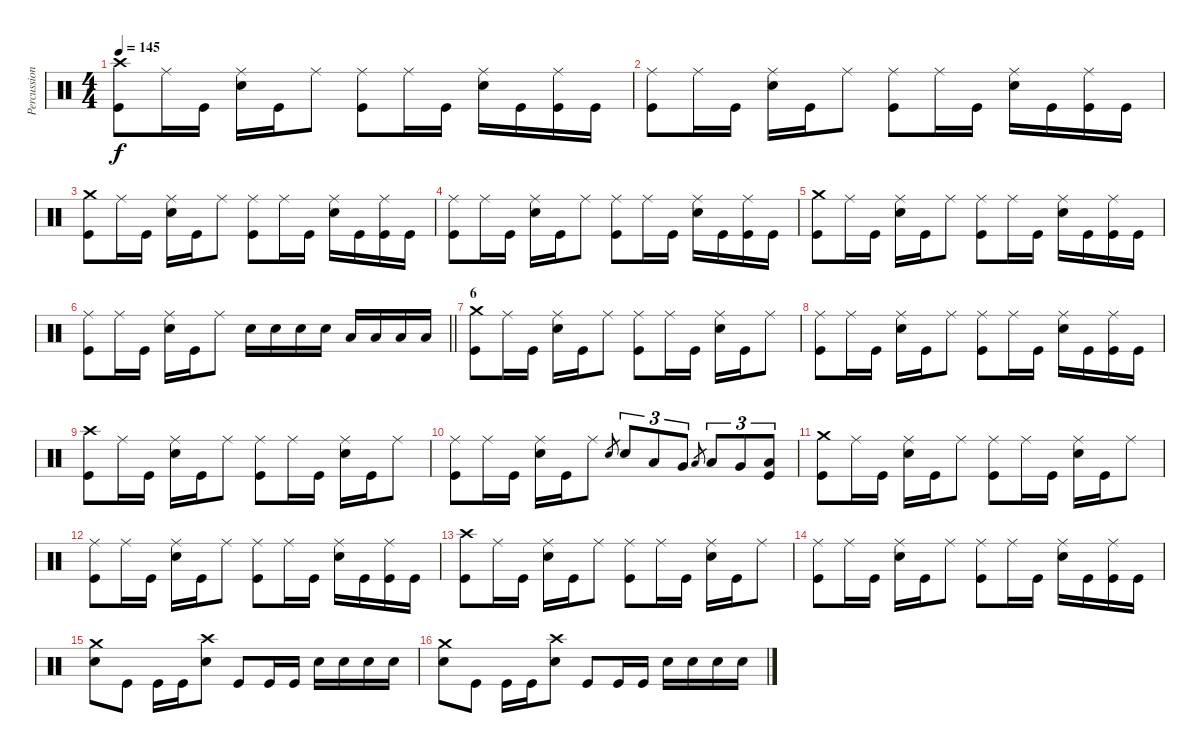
\track ("Percussion" "Percussion") {instrument percussion}
\staff {score}
\articulation defaults
\ts (4 4)
\tempo 145
\clef neutral
\ks c
("Crash high (hit)" "Kick (hit)").8{dy f} "Ride (middle)".16 "Kick (hit)".16 ("Ride (middle)" "Snare (hit) 2").16 "Kick (hit)".16 "Ride (middle)".8 ("Ride (middle)" "Kick (hit)").8 "Ride (middle)".16 "Kick (hit)".16 ("Ride (middle)" "Snare (hit) 2").16 "Kick (hit)".16 ("Ride (middle)" "Kick (hit)").16 "Kick (hit)".16 |
("Ride (middle)" "Kick (hit)").8 "Ride (middle)".16 "Kick (hit)".16 ("Ride (middle)" "Snare (hit) 2").16 "Kick (hit)".16 "Ride (middle)".8 ("Ride (middle)" "Kick (hit)").8 "Ride (middle)".16 "Kick (hit)".16 ("Ride (middle)" "Snare (hit) 2").16 "Kick (hit)".16 ("Ride (middle)" "Kick (hit)").16 "Kick (hit)".16 |
("Crash medium (hit)" "Kick (hit)").8 "Ride (middle)".16 "Kick (hit)".16 ("Ride (middle)" "Snare (hit) 2").16 "Kick (hit)".16 "Ride (middle)".8 ("Ride (middle)" "Kick (hit)").8 "Ride (middle)".16 "Kick (hit)".16 ("Ride (middle)" "Snare (hit) 2").16 "Kick (hit)".16 ("Ride (middle)" "Kick (hit)").16 "Kick (hit)".16 |
("Ride (middle)" "Kick (hit)").8 "Ride (middle)".16 "Kick (hit)".16 ("Ride (middle)" "Snare (hit) 2").16 "Kick (hit)".16 "Ride (middle)".8 ("Ride (middle)" "Kick (hit)").8 "Ride (middle)".16 "Kick (hit)".16 ("Ride (middle)" "Snare (hit) 2").16 "Kick (hit)".16 ("Ride (middle)" "Kick (hit)").16 "Kick (hit)".16 |
("Crash medium (hit)" "Kick (hit)").8 "Ride (middle)".16 "Kick (hit)".16 ("Ride (middle)" "Snare (hit) 2").16 "Kick (hit)".16 "Ride (middle)".8 ("Ride (middle)" "Kick (hit)").8 "Ride (middle)".16 "Kick (hit)".16 ("Ride (middle)" "Snare (hit) 2").16 "Kick (hit)".16 ("Ride (middle)" "Kick (hit)").16 "Kick (hit)".16 |
\barLineRight lightlight
("Ride (middle)" "Kick (hit)").8 "Ride (middle)".16 "Kick (hit)".16 ("Ride (middle)" "Snare (hit) 2").16 "Kick (hit)".16 "Ride (middle)".8 "Snare (hit) 2".16 "Snare (hit) 2".16 "Snare (hit) 2".16 "Snare (hit) 2".16 "Low Tom (hit)".16 "Low Tom (hit)".16 "Low Tom (hit)".16 "Low Tom (hit)".16 |
\section ("" "6")
("Crash medium (hit)" "Kick (hit)").8 "Ride (middle)".16 "Kick (hit)".16 ("Ride (middle)" "Snare (hit) 2").16 "Kick (hit)".16 "Ride (middle)".8 ("Ride (middle)" "Kick (hit)").8 "Ride (middle)".16 "Kick (hit)".16 ("Ride (middle)" "Snare (hit) 2").16 "Kick (hit)".16 "Ride (middle)".8 |
("Ride (middle)" "Kick (hit)").8 "Ride (middle)".16 "Kick (hit)".16 ("Ride (middle)" "Snare (hit) 2").16 "Kick (hit)".16 "Ride (middle)".8 ("Ride (middle)" "Kick (hit)").8 "Ride (middle)".16 "Kick (hit)".16 ("Ride (middle)" "Snare (hit) 2").16 "Kick (hit)".16 ("Ride (middle)" "Kick (hit)").16 "Kick (hit)".16 |
("Crash high (hit)" "Kick (hit)").8 "Ride (middle)".16 "Kick (hit)".16 ("Ride (middle)" "Snare (hit) 2").16 "Kick (hit)".16 "Ride (middle)".8 ("Ride (middle)" "Kick (hit)").8 "Ride (middle)".16 "Kick (hit)".16 ("Ride (middle)" "Snare (hit) 2").16 "Kick (hit)".16 "Ride (middle)".8 |
("Ride (middle)" "Kick (hit)").8 "Ride (middle)".16 "Kick (hit)".16 ("Ride (middle)" "Snare (hit) 2").16 "Kick (hit)".16 "Ride (middle)".8 "Snare (hit) 2".8{gr} "Snare (hit) 2".8{tu (3 2)} "Low Tom (hit)".8{tu (3 2)} "Very Low Tom (hit)".8{tu (3 2)} "Low Tom (hit)".8{gr} "Low Tom (hit)".8{tu (3 2)} "Very Low Tom (hit)".8{tu (3 2)} ("Low Floor Tom (hit)" "Kick (hit)").8{tu (3 2)} |
("Crash medium (hit)" "Kick (hit)").8 "Ride (middle)".16 "Kick (hit)".16 ("Ride (middle)" "Snare (hit) 2").16 "Kick (hit)".16 "Ride (middle)".8 ("Ride (middle)" "Kick (hit)").8 "Ride (middle)".16 "Kick (hit)".16 ("Ride (middle)" "Snare (hit) 2").16 "Kick (hit)".16 "Ride (middle)".8 |
("Ride (middle)" "Kick (hit)").8 "Ride (middle)".16 "Kick (hit)".16 ("Ride (middle)" "Snare (hit) 2").16 "Kick (hit)".16 "Ride (middle)".8 ("Ride (middle)" "Kick (hit)").8 "Ride (middle)".16 "Kick (hit)".16 ("Ride (middle)" "Snare (hit) 2").16 "Kick (hit)".16 ("Ride (middle)" "Kick (hit)").16 "Kick (hit)".16 |
("Crash high (hit)" "Kick (hit)").8 "Ride (middle)".16 "Kick (hit)".16 ("Ride (middle)" "Snare (hit) 2").16 "Kick (hit)".16 "Ride (middle)".8 ("Ride (middle)" "Kick (hit)").8 "Ride (middle)".16 "Kick (hit)".16 ("Ride (middle)" "Snare (hit) 2").16 "Kick (hit)".16 "Ride (middle)".8 |
("Ride (middle)" "Kick (hit)").8 "Ride (middle)".16 "Kick (hit)".16 ("Ride (middle)" "Snare (hit) 2").16 "Kick (hit)".16 "Ride (middle)".8 ("Ride (middle)" "Kick (hit)").8 "Ride (middle)".16 "Kick (hit)".16 ("Ride (middle)" "Snare (hit) 2").16 "Kick (hit)".16 ("Ride (middle)" "Kick (hit)").16 "Kick (hit)".16 |
("Crash medium (hit)" "Snare (hit) 2").8 "Kick (hit)".8 "Kick (hit)".16 "Kick (hit)".16 ("Crash high (hit)" "Snare (hit) 2").8 "Kick (hit)".8 "Kick (hit)".16 "Kick (hit)".16 "Snare (hit) 2".16 "Snare (hit) 2".16 "Snare (hit) 2".16 "Snare (hit) 2".16 |
("Crash medium (hit)" "Snare (hit) 2").8 "Kick (hit)".8 "Kick (hit)".16 "Kick (hit)".16 ("Crash high (hit)" "Snare (hit) 2").8 "Kick (hit)".8 "Kick (hit)".16 "Kick (hit)".16 "Snare (hit) 2".16 "Snare (hit) 2".16 "Snare (hit) 2".16 "Snare (hit) 2".16
